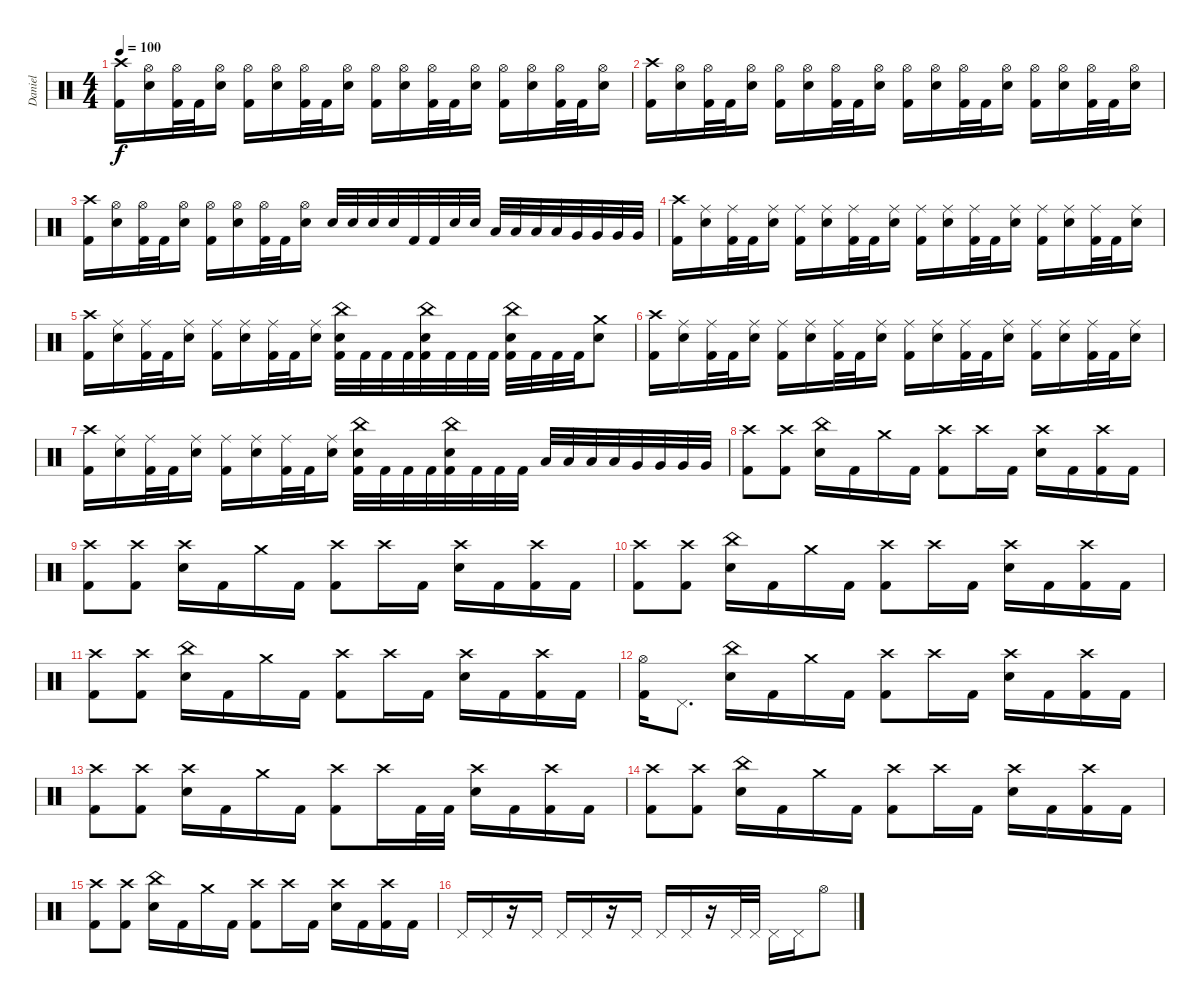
\track ("Daniel" "Daniel") {instrument percussion}
\staff {score}
\articulation defaults
\ts (4 4)
\tempo 100
\clef neutral
\ks c
("Crash high (hit)" "Kick (hit) 2").16{dy f} ("Hi-Hat (open)" "Snare (hit) 2").16 ("Hi-Hat (open)" "Kick (hit) 2").32 "Kick (hit) 2".32 ("Hi-Hat (open)" "Snare (hit) 2").16 ("Hi-Hat (open)" "Kick (hit) 2").16 ("Hi-Hat (open)" "Snare (hit) 2").16 ("Hi-Hat (open)" "Kick (hit) 2").32 "Kick (hit) 2".32 ("Hi-Hat (open)" "Snare (hit) 2").16 ("Hi-Hat (open)" "Kick (hit) 2").16 ("Hi-Hat (open)" "Snare (hit) 2").16 ("Hi-Hat (open)" "Kick (hit) 2").32 "Kick (hit) 2".32 ("Hi-Hat (open)" "Snare (hit) 2").16 ("Hi-Hat (open)" "Kick (hit) 2").16 ("Hi-Hat (open)" "Snare (hit) 2").16 ("Hi-Hat (open)" "Kick (hit) 2").32 "Kick (hit) 2".32 ("Hi-Hat (open)" "Snare (hit) 2").16 |
("Crash high (hit)" "Kick (hit) 2").16 ("Hi-Hat (open)" "Snare (hit) 2").16 ("Hi-Hat (open)" "Kick (hit) 2").32 "Kick (hit) 2".32 ("Hi-Hat (open)" "Snare (hit) 2").16 ("Hi-Hat (open)" "Kick (hit) 2").16 ("Hi-Hat (open)" "Snare (hit) 2").16 ("Hi-Hat (open)" "Kick (hit) 2").32 "Kick (hit) 2".32 ("Hi-Hat (open)" "Snare (hit) 2").16 ("Hi-Hat (open)" "Kick (hit) 2").16 ("Hi-Hat (open)" "Snare (hit) 2").16 ("Hi-Hat (open)" "Kick (hit) 2").32 "Kick (hit) 2".32 ("Hi-Hat (open)" "Snare (hit) 2").16 ("Hi-Hat (open)" "Kick (hit) 2").16 ("Hi-Hat (open)" "Snare (hit) 2").16 ("Hi-Hat (open)" "Kick (hit) 2").32 "Kick (hit) 2".32 ("Hi-Hat (open)" "Snare (hit) 2").16 |
("Crash high (hit)" "Kick (hit) 2").16 ("Hi-Hat (open)" "Snare (hit) 2").16 ("Hi-Hat (open)" "Kick (hit) 2").32 "Kick (hit) 2".32 ("Hi-Hat (open)" "Snare (hit) 2").16 ("Hi-Hat (open)" "Kick (hit) 2").16 ("Hi-Hat (open)" "Snare (hit) 2").16 ("Hi-Hat (open)" "Kick (hit) 2").32 "Kick (hit) 2".32 ("Hi-Hat (open)" "Snare (hit) 2").16 "Snare (hit) 2".32 "Snare (hit) 2".32 "Snare (hit) 2".32 "Snare (hit) 2".32 "Kick (hit) 2".32 "Kick (hit) 2".32 "Snare (hit) 2".32 "Snare (hit) 2".32 "Low Tom (hit)".32 "Low Tom (hit)".32 "Low Tom (hit)".32 "Low Tom (hit)".32 "Very Low Tom (hit)".32 "Very Low Tom (hit)".32 "Very Low Tom (hit)".32 "Very Low Tom (hit)".32 |
("Crash high (hit)" "Kick (hit) 2").16 ("Ride (middle)" "Snare (hit) 2").16 ("Ride (middle)" "Kick (hit) 2").32 "Kick (hit) 2".32 ("Ride (middle)" "Snare (hit) 2").16 ("Ride (middle)" "Kick (hit) 2").16 ("Ride (middle)" "Snare (hit) 2").16 ("Ride (middle)" "Kick (hit) 2").32 "Kick (hit) 2".32 ("Ride (middle)" "Snare (hit) 2").16 ("Ride (middle)" "Kick (hit) 2").16 ("Ride (middle)" "Snare (hit) 2").16 ("Ride (middle)" "Kick (hit) 2").32 "Kick (hit) 2".32 ("Ride (middle)" "Snare (hit) 2").16 ("Ride (middle)" "Kick (hit) 2").16 ("Ride (middle)" "Snare (hit) 2").16 ("Ride (middle)" "Kick (hit) 2").32 "Kick (hit) 2".32 ("Ride (middle)" "Snare (hit) 2").16 |
("Crash high (hit)" "Kick (hit) 2").16 ("Ride (middle)" "Snare (hit) 2").16 ("Ride (middle)" "Kick (hit) 2").32 "Kick (hit) 2".32 ("Ride (middle)" "Snare (hit) 2").16 ("Ride (middle)" "Kick (hit) 2").16 ("Ride (middle)" "Snare (hit) 2").16 ("Ride (middle)" "Kick (hit) 2").32 "Kick (hit) 2".32 ("Ride (middle)" "Snare (hit) 2").16 ("China (hit)" "Snare (hit) 2" "Kick (hit) 2").32 "Kick (hit) 2".32 "Kick (hit) 2".32 "Kick (hit) 2".32 ("China (hit)" "Snare (hit) 2" "Kick (hit) 2").32 "Kick (hit) 2".32 "Kick (hit) 2".32 "Kick (hit) 2".32 ("China (hit)" "Snare (hit) 2" "Kick (hit) 2").32 "Kick (hit) 2".32 "Kick (hit) 2".32 "Kick (hit) 2".32 ("Crash medium (hit)" "Snare (hit) 2").8 |
("Crash high (hit)" "Kick (hit) 2").16 ("Ride (middle)" "Snare (hit) 2").16 ("Ride (middle)" "Kick (hit) 2").32 "Kick (hit) 2".32 ("Ride (middle)" "Snare (hit) 2").16 ("Ride (middle)" "Kick (hit) 2").16 ("Ride (middle)" "Snare (hit) 2").16 ("Ride (middle)" "Kick (hit) 2").32 "Kick (hit) 2".32 ("Ride (middle)" "Snare (hit) 2").16 ("Ride (middle)" "Kick (hit) 2").16 ("Ride (middle)" "Snare (hit) 2").16 ("Ride (middle)" "Kick (hit) 2").32 "Kick (hit) 2".32 ("Ride (middle)" "Snare (hit) 2").16 ("Ride (middle)" "Kick (hit) 2").16 ("Ride (middle)" "Snare (hit) 2").16 ("Ride (middle)" "Kick (hit) 2").32 "Kick (hit) 2".32 ("Ride (middle)" "Snare (hit) 2").16 |
("Crash high (hit)" "Kick (hit) 2").16 ("Ride (middle)" "Snare (hit) 2").16 ("Ride (middle)" "Kick (hit) 2").32 "Kick (hit) 2".32 ("Ride (middle)" "Snare (hit) 2").16 ("Ride (middle)" "Kick (hit) 2").16 ("Ride (middle)" "Snare (hit) 2").16 ("Ride (middle)" "Kick (hit) 2").32 "Kick (hit) 2".32 ("Ride (middle)" "Snare (hit) 2").16 ("China (hit)" "Snare (hit) 2" "Kick (hit) 2").32 "Kick (hit) 2".32 "Kick (hit) 2".32 "Kick (hit) 2".32 ("China (hit)" "Snare (hit) 2" "Kick (hit) 2").32 "Kick (hit) 2".32 "Kick (hit) 2".32 "Kick (hit) 2".32 "Low Tom (hit)".32 "Low Tom (hit)".32 "Low Tom (hit)".32 "Low Tom (hit)".32 "Very Low Tom (hit)".32 "Very Low Tom (hit)".32 "Very Low Tom (hit)".32 "Very Low Tom (hit)".32 |
("Crash high (hit)" "Kick (hit) 2").8 ("Crash high (hit)" "Kick (hit) 2").8 ("China (hit)" "Snare (hit) 2").16 "Kick (hit) 2".16 "Crash medium (hit)".16 "Kick (hit) 2".16 ("Crash high (hit)" "Kick (hit) 2").8 "Crash high (hit)".16 "Kick (hit) 2".16 ("Crash high (hit)" "Snare (hit) 2").16 "Kick (hit) 2".16 ("Crash high (hit)" "Kick (hit) 2").16 "Kick (hit) 2".16 |
("Crash high (hit)" "Kick (hit) 2").8 ("Crash high (hit)" "Kick (hit) 2").8 ("Crash high (hit)" "Snare (hit) 2").16 "Kick (hit) 2".16 "Crash medium (hit)".16 "Kick (hit) 2".16 ("Crash high (hit)" "Kick (hit) 2").8 "Crash high (hit)".16 "Kick (hit) 2".16 ("Crash high (hit)" "Snare (hit) 2").16 "Kick (hit) 2".16 ("Crash high (hit)" "Kick (hit) 2").16 "Kick (hit) 2".16 |
("Crash high (hit)" "Kick (hit) 2").8 ("Crash high (hit)" "Kick (hit) 2").8 ("China (hit)" "Snare (hit) 2").16 "Kick (hit) 2".16 "Crash medium (hit)".16 "Kick (hit) 2".16 ("Crash high (hit)" "Kick (hit) 2").8 "Crash high (hit)".16 "Kick (hit) 2".16 ("Crash high (hit)" "Snare (hit) 2").16 "Kick (hit) 2".16 ("Crash high (hit)" "Kick (hit) 2").16 "Kick (hit) 2".16 |
("Crash high (hit)" "Kick (hit) 2").8 ("Crash high (hit)" "Kick (hit) 2").8 ("China (hit)" "Snare (hit) 2").16 "Kick (hit) 2".16 "Crash medium (hit)".16 "Kick (hit) 2".16 ("Crash high (hit)" "Kick (hit) 2").8 "Crash high (hit)".16 "Kick (hit) 2".16 ("Crash high (hit)" "Snare (hit) 2").16 "Kick (hit) 2".16 ("Crash high (hit)" "Kick (hit) 2").16 "Kick (hit) 2".16 |
("Hi-Hat (open)" "Kick (hit) 2").16 "Pedal Hi-Hat (hit)".8{d} ("China (hit)" "Snare (hit) 2").16 "Kick (hit) 2".16 "Crash medium (hit)".16 "Kick (hit) 2".16 ("Crash high (hit)" "Kick (hit) 2").8 "Crash high (hit)".16 "Kick (hit) 2".16 ("Crash high (hit)" "Snare (hit) 2").16 "Kick (hit) 2".16 ("Crash high (hit)" "Kick (hit) 2").16 "Kick (hit) 2".16 |
("Crash high (hit)" "Kick (hit) 2").8 ("Crash high (hit)" "Kick (hit) 2").8 ("Crash high (hit)" "Snare (hit) 2").16 "Kick (hit) 2".16 "Crash medium (hit)".16 "Kick (hit) 2".16 ("Crash high (hit)" "Kick (hit) 2").8 "Crash high (hit)".16 "Kick (hit) 2".32 "Kick (hit) 2".32 ("Crash high (hit)" "Snare (hit) 2").16 "Kick (hit) 2".16 ("Crash high (hit)" "Kick (hit) 2").16 "Kick (hit) 2".16 |
("Crash high (hit)" "Kick (hit) 2").8 ("Crash high (hit)" "Kick (hit) 2").8 ("China (hit)" "Snare (hit) 2").16 "Kick (hit) 2".16 "Crash medium (hit)".16 "Kick (hit) 2".16 ("Crash high (hit)" "Kick (hit) 2").8 "Crash high (hit)".16 "Kick (hit) 2".16 ("Crash high (hit)" "Snare (hit) 2").16 "Kick (hit) 2".16 ("Crash high (hit)" "Kick (hit) 2").16 "Kick (hit) 2".16 |
("Crash high (hit)" "Kick (hit) 2").8 ("Crash high (hit)" "Kick (hit) 2").8 ("China (hit)" "Snare (hit) 2").16 "Kick (hit) 2".16 "Crash medium (hit)".16 "Kick (hit) 2".16 ("Crash high (hit)" "Kick (hit) 2").8 "Crash high (hit)".16 "Kick (hit) 2".16 ("Crash high (hit)" "Snare (hit) 2").16 "Kick (hit) 2".16 ("Crash high (hit)" "Kick (hit) 2").16 "Kick (hit) 2".16 |
"Pedal Hi-Hat (hit)".16 "Pedal Hi-Hat (hit)".16 r.16 "Pedal Hi-Hat (hit)".16 "Pedal Hi-Hat (hit)".16 "Pedal Hi-Hat (hit)".16 r.16 "Pedal Hi-Hat (hit)".16 "Pedal Hi-Hat (hit)".16 "Pedal Hi-Hat (hit)".16 r.16 "Pedal Hi-Hat (hit)".32 "Pedal Hi-Hat (hit)".32 "Pedal Hi-Hat (hit)".16 "Pedal Hi-Hat (hit)".16 "Hi-Hat (open)".8
